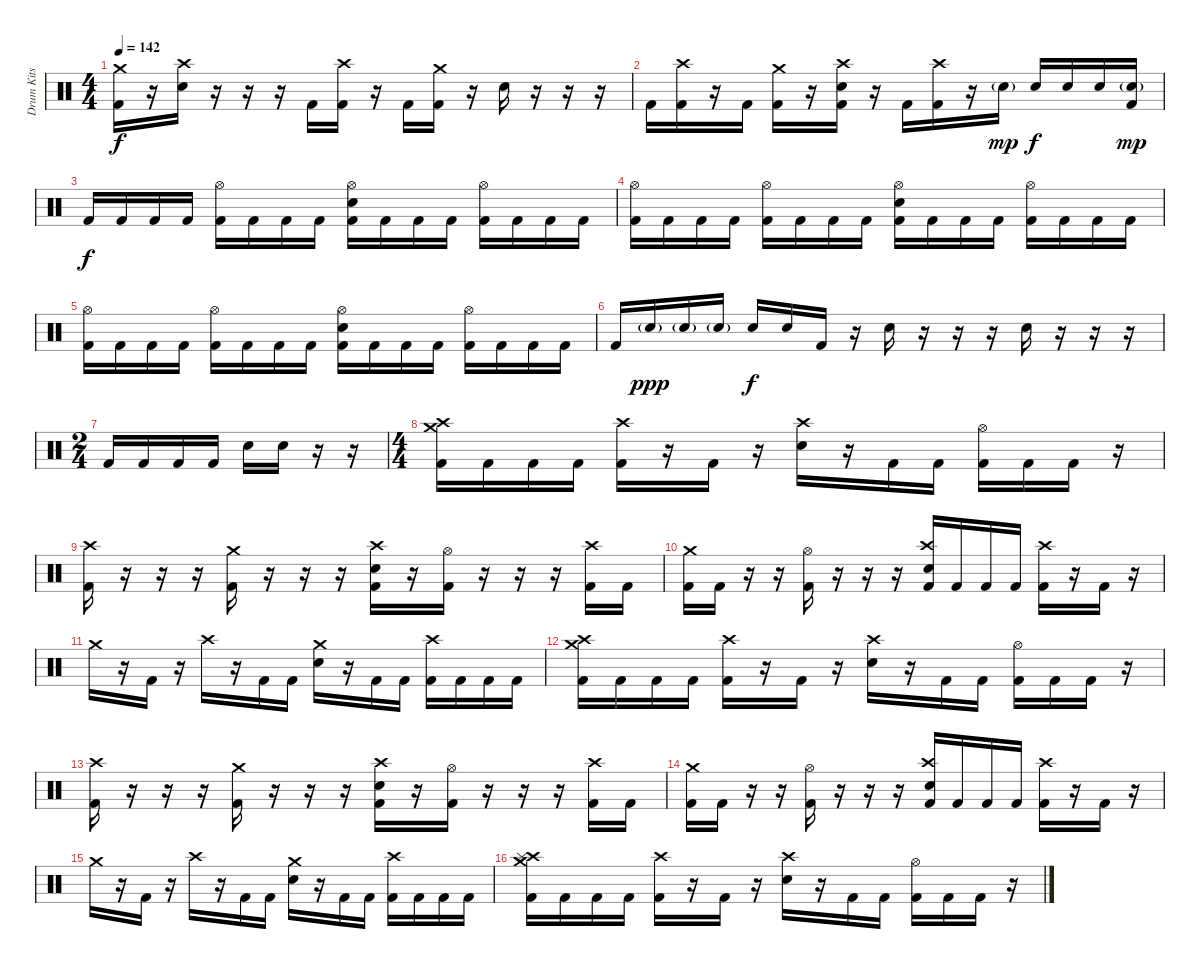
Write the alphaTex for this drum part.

\track ("Drum Kits" "Drum Kits") {instrument percussion}
\staff {score}
\articulation defaults
\ts (4 4)
\tempo 142
\clef neutral
\ks c
("Crash medium (hit)" "Kick (hit) 2").16{dy f} r.16 ("Crash high (hit)" "Electric Snare (hit)").16 r.16 r.16 r.16 "Kick (hit) 2".16 ("Crash high (hit)" "Kick (hit) 2").16 r.16 "Kick (hit) 2".16 ("Crash medium (hit)" "Kick (hit) 2").16 r.16 "Electric Snare (hit)".16 r.16 r.16 r.16 |
"Kick (hit) 2".16 ("Crash high (hit)" "Kick (hit) 2").16 r.16 "Kick (hit) 2".16 ("Crash medium (hit)" "Kick (hit) 2").16 r.16 ("Crash high (hit)" "Electric Snare (hit)" "Kick (hit) 2").16 r.16 "Kick (hit) 2".16 ("Crash high (hit)" "Kick (hit) 2").16 r.16 "Electric Snare (hit)"{g}.16{dy mp} "Electric Snare (hit)".16{dy f} "Electric Snare (hit)".16 "Electric Snare (hit)".16 ("Electric Snare (hit)"{g} "Kick (hit) 2").16{dy mp} |
"Kick (hit) 2".16{dy f} "Kick (hit) 2".16 "Kick (hit) 2".16 "Kick (hit) 2".16 ("Hi-Hat (open)" "Kick (hit) 2").16 "Kick (hit) 2".16 "Kick (hit) 2".16 "Kick (hit) 2".16 ("Hi-Hat (open)" "Electric Snare (hit)" "Kick (hit) 2").16 "Kick (hit) 2".16 "Kick (hit) 2".16 "Kick (hit) 2".16 ("Hi-Hat (open)" "Kick (hit) 2").16 "Kick (hit) 2".16 "Kick (hit) 2".16 "Kick (hit) 2".16 |
("Hi-Hat (open)" "Kick (hit) 2").16 "Kick (hit) 2".16 "Kick (hit) 2".16 "Kick (hit) 2".16 ("Hi-Hat (open)" "Kick (hit) 2").16 "Kick (hit) 2".16 "Kick (hit) 2".16 "Kick (hit) 2".16 ("Hi-Hat (open)" "Electric Snare (hit)" "Kick (hit) 2").16 "Kick (hit) 2".16 "Kick (hit) 2".16 "Kick (hit) 2".16 ("Hi-Hat (open)" "Kick (hit) 2").16 "Kick (hit) 2".16 "Kick (hit) 2".16 "Kick (hit) 2".16 |
("Hi-Hat (open)" "Kick (hit) 2").16 "Kick (hit) 2".16 "Kick (hit) 2".16 "Kick (hit) 2".16 ("Hi-Hat (open)" "Kick (hit) 2").16 "Kick (hit) 2".16 "Kick (hit) 2".16 "Kick (hit) 2".16 ("Hi-Hat (open)" "Electric Snare (hit)" "Kick (hit) 2").16 "Kick (hit) 2".16 "Kick (hit) 2".16 "Kick (hit) 2".16 ("Hi-Hat (open)" "Kick (hit) 2").16 "Kick (hit) 2".16 "Kick (hit) 2".16 "Kick (hit) 2".16 |
"Kick (hit) 2".16 "Electric Snare (hit)"{g}.16{dy ppp} "Electric Snare (hit)"{g}.16 "Electric Snare (hit)"{g}.16 "Electric Snare (hit)".16{dy f} "Electric Snare (hit)".16 "Kick (hit) 2".16 r.16 "Electric Snare (hit)".16 r.16 r.16 r.16 "Electric Snare (hit)".16 r.16 r.16 r.16 |
\ts (2 4)
"Kick (hit) 2".16 "Kick (hit) 2".16 "Kick (hit) 2".16 "Kick (hit) 2".16 "Electric Snare (hit)".16 "Electric Snare (hit)".16 r.16 r.16 |
\ts (4 4)
("Crash high (hit)" "Crash medium (hit)" "Kick (hit) 2").16 "Kick (hit) 2".16 "Kick (hit) 2".16 "Kick (hit) 2".16 ("Crash high (hit)" "Kick (hit) 2").16 r.16 "Kick (hit) 2".16 r.16 ("Crash high (hit)" "Electric Snare (hit)").16 r.16 "Kick (hit) 2".16 "Kick (hit) 2".16 ("Hi-Hat (open)" "Kick (hit) 2").16 "Kick (hit) 2".16 "Kick (hit) 2".16 r.16 |
("Crash high (hit)" "Kick (hit) 2").16 r.16 r.16 r.16 ("Crash medium (hit)" "Kick (hit) 2").16 r.16 r.16 r.16 ("Crash high (hit)" "Electric Snare (hit)" "Kick (hit) 2").16 r.16 ("Hi-Hat (open)" "Kick (hit) 2").16 r.16 r.16 r.16 ("Crash high (hit)" "Kick (hit) 2").16 "Kick (hit) 2".16 |
("Crash medium (hit)" "Kick (hit) 2").16 "Kick (hit) 2".16 r.16 r.16 ("Hi-Hat (open)" "Kick (hit) 2").16 r.16 r.16 r.16 ("Crash high (hit)" "Electric Snare (hit)" "Kick (hit) 2").16 "Kick (hit) 2".16 "Kick (hit) 2".16 "Kick (hit) 2".16 ("Crash high (hit)" "Kick (hit) 2").16 r.16 "Kick (hit) 2".16 r.16 |
"Crash medium (hit)".16 r.16 "Kick (hit) 2".16 r.16 "Crash high (hit)".16 r.16 "Kick (hit) 2".16 "Kick (hit) 2".16 ("Crash medium (hit)" "Electric Snare (hit)").16 r.16 "Kick (hit) 2".16 "Kick (hit) 2".16 ("Crash high (hit)" "Kick (hit) 2").16 "Kick (hit) 2".16 "Kick (hit) 2".16 "Kick (hit) 2".16 |
("Crash high (hit)" "Crash medium (hit)" "Kick (hit) 2").16 "Kick (hit) 2".16 "Kick (hit) 2".16 "Kick (hit) 2".16 ("Crash high (hit)" "Kick (hit) 2").16 r.16 "Kick (hit) 2".16 r.16 ("Crash high (hit)" "Electric Snare (hit)").16 r.16 "Kick (hit) 2".16 "Kick (hit) 2".16 ("Hi-Hat (open)" "Kick (hit) 2").16 "Kick (hit) 2".16 "Kick (hit) 2".16 r.16 |
("Crash high (hit)" "Kick (hit) 2").16 r.16 r.16 r.16 ("Crash medium (hit)" "Kick (hit) 2").16 r.16 r.16 r.16 ("Crash high (hit)" "Electric Snare (hit)" "Kick (hit) 2").16 r.16 ("Hi-Hat (open)" "Kick (hit) 2").16 r.16 r.16 r.16 ("Crash high (hit)" "Kick (hit) 2").16 "Kick (hit) 2".16 |
("Crash medium (hit)" "Kick (hit) 2").16 "Kick (hit) 2".16 r.16 r.16 ("Hi-Hat (open)" "Kick (hit) 2").16 r.16 r.16 r.16 ("Crash high (hit)" "Electric Snare (hit)" "Kick (hit) 2").16 "Kick (hit) 2".16 "Kick (hit) 2".16 "Kick (hit) 2".16 ("Crash high (hit)" "Kick (hit) 2").16 r.16 "Kick (hit) 2".16 r.16 |
"Crash medium (hit)".16 r.16 "Kick (hit) 2".16 r.16 "Crash high (hit)".16 r.16 "Kick (hit) 2".16 "Kick (hit) 2".16 ("Crash medium (hit)" "Electric Snare (hit)").16 r.16 "Kick (hit) 2".16 "Kick (hit) 2".16 ("Crash high (hit)" "Kick (hit) 2").16 "Kick (hit) 2".16 "Kick (hit) 2".16 "Kick (hit) 2".16 |
("Crash high (hit)" "Crash medium (hit)" "Splash (hit)" "Kick (hit) 2").16 "Kick (hit) 2".16 "Kick (hit) 2".16 "Kick (hit) 2".16 ("Crash high (hit)" "Kick (hit) 2").16 r.16 "Kick (hit) 2".16 r.16 ("Crash high (hit)" "Electric Snare (hit)").16 r.16 "Kick (hit) 2".16 "Kick (hit) 2".16 ("Hi-Hat (open)" "Kick (hit) 2").16 "Kick (hit) 2".16 "Kick (hit) 2".16 r.16
